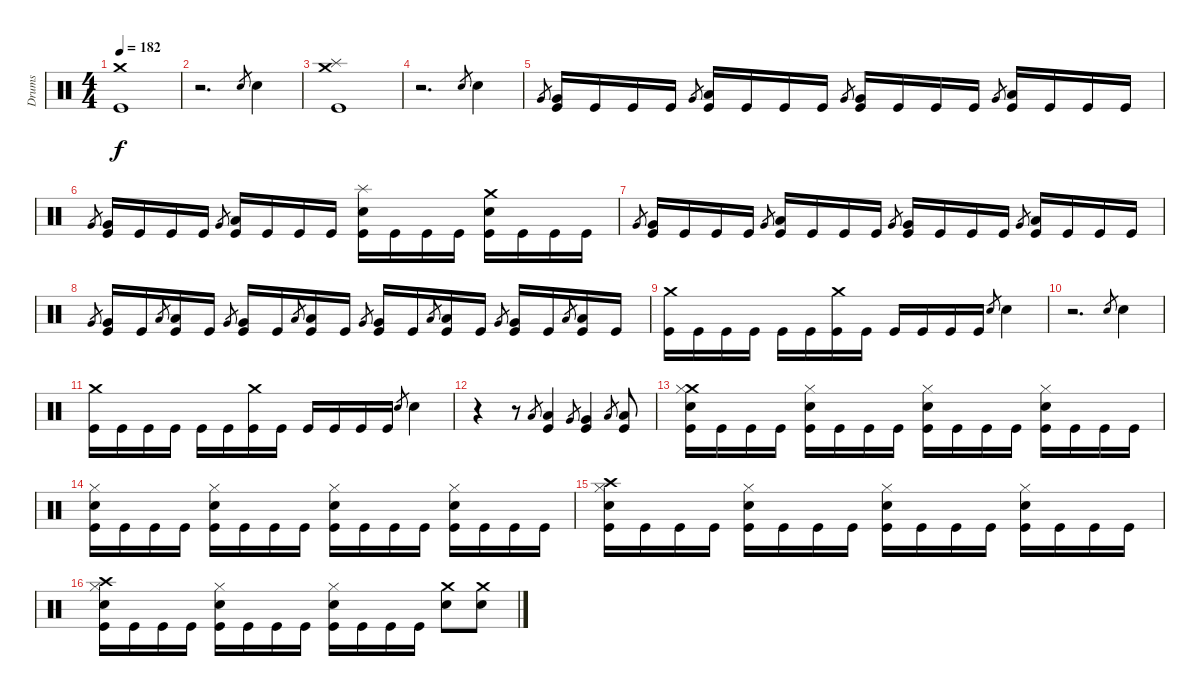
\track ("Drums" "Drums") {instrument percussion}
\staff {score}
\articulation defaults
\ts (4 4)
\tempo 182
\clef neutral
\ks c
("Crash medium (hit)" "Kick (hit)").1{dy f} |
r.2{d} "Snare (hit) 2".8{gr} "Snare (hit) 2".4 |
("Crash medium (hit)" "Splash (hit)" "Kick (hit)").1 |
r.2{d} "Snare (hit) 2".8{gr} "Snare (hit) 2".4 |
"Very Low Tom (hit)".8{gr} ("Very Low Tom (hit)" "Kick (hit)").16 "Kick (hit)".16 "Kick (hit)".16 "Kick (hit)".16 "Very Low Tom (hit)".8{gr} ("Low Floor Tom (hit)" "Kick (hit)").16 "Kick (hit)".16 "Kick (hit)".16 "Kick (hit)".16 "Very Low Tom (hit)".8{gr} ("Very Low Tom (hit)" "Kick (hit)").16 "Kick (hit)".16 "Kick (hit)".16 "Kick (hit)".16 "Very Low Tom (hit)".8{gr} ("Low Floor Tom (hit)" "Kick (hit)").16 "Kick (hit)".16 "Kick (hit)".16 "Kick (hit)".16 |
"Very Low Tom (hit)".8{gr} ("Very Low Tom (hit)" "Kick (hit)").16 "Kick (hit)".16 "Kick (hit)".16 "Kick (hit)".16 "Very Low Tom (hit)".8{gr} ("Low Floor Tom (hit)" "Kick (hit)").16 "Kick (hit)".16 "Kick (hit)".16 "Kick (hit)".16 ("Splash (hit)" "Snare (hit) 2" "Kick (hit)").16 "Kick (hit)".16 "Kick (hit)".16 "Kick (hit)".16 ("Crash medium (hit)" "Snare (hit) 2" "Kick (hit)").16 "Kick (hit)".16 "Kick (hit)".16 "Kick (hit)".16 |
"Very Low Tom (hit)".8{gr} ("Very Low Tom (hit)" "Kick (hit)").16 "Kick (hit)".16 "Kick (hit)".16 "Kick (hit)".16 "Very Low Tom (hit)".8{gr} ("Low Floor Tom (hit)" "Kick (hit)").16 "Kick (hit)".16 "Kick (hit)".16 "Kick (hit)".16 "Very Low Tom (hit)".8{gr} ("Very Low Tom (hit)" "Kick (hit)").16 "Kick (hit)".16 "Kick (hit)".16 "Kick (hit)".16 "Very Low Tom (hit)".8{gr} ("Low Floor Tom (hit)" "Kick (hit)").16 "Kick (hit)".16 "Kick (hit)".16 "Kick (hit)".16 |
"Very Low Tom (hit)".8{gr} ("Very Low Tom (hit)" "Kick (hit)").16 "Kick (hit)".16 "Low Floor Tom (hit)".8{gr} ("Low Floor Tom (hit)" "Kick (hit)").16 "Kick (hit)".16 "Very Low Tom (hit)".8{gr} ("Very Low Tom (hit)" "Kick (hit)").16 "Kick (hit)".16 "Low Floor Tom (hit)".8{gr} ("Low Floor Tom (hit)" "Kick (hit)").16 "Kick (hit)".16 "Very Low Tom (hit)".8{gr} ("Very Low Tom (hit)" "Kick (hit)").16 "Kick (hit)".16 "Low Floor Tom (hit)".8{gr} ("Low Floor Tom (hit)" "Kick (hit)").16 "Kick (hit)".16 "Very Low Tom (hit)".8{gr} ("Very Low Tom (hit)" "Kick (hit)").16 "Kick (hit)".16 "Low Floor Tom (hit)".8{gr} ("Low Floor Tom (hit)" "Kick (hit)").16 "Kick (hit)".16 |
("Crash medium (hit)" "Kick (hit)").16 "Kick (hit)".16 "Kick (hit)".16 "Kick (hit)".16 "Kick (hit)".16 "Kick (hit)".16 ("Crash medium (hit)" "Kick (hit)").16 "Kick (hit)".16 "Kick (hit)".16 "Kick (hit)".16 "Kick (hit)".16 "Kick (hit)".16 "Snare (hit) 2".8{gr} "Snare (hit) 2".4 |
r.2{d} "Snare (hit) 2".8{gr} "Snare (hit) 2".4 |
("Crash medium (hit)" "Kick (hit)").16 "Kick (hit)".16 "Kick (hit)".16 "Kick (hit)".16 "Kick (hit)".16 "Kick (hit)".16 ("Crash medium (hit)" "Kick (hit)").16 "Kick (hit)".16 "Kick (hit)".16 "Kick (hit)".16 "Kick (hit)".16 "Kick (hit)".16 "Snare (hit) 2".8{gr} "Snare (hit) 2".4 |
r.4 r.8 "Low Tom (hit)".8{gr} ("Low Tom (hit)" "Kick (hit)").4 "Very Low Tom (hit)".8{gr} ("Very Low Tom (hit)" "Kick (hit)").4 "Low Floor Tom (hit)".8{gr} ("Low Floor Tom (hit)" "Kick (hit)").8 |
("Crash medium (hit)" "Hi-Hat (closed)" "Snare (hit) 2" "Kick (hit)").16 "Kick (hit)".16 "Kick (hit)".16 "Kick (hit)".16 ("Hi-Hat (closed)" "Snare (hit) 2" "Kick (hit)").16 "Kick (hit)".16 "Kick (hit)".16 "Kick (hit)".16 ("Hi-Hat (closed)" "Snare (hit) 2" "Kick (hit)").16 "Kick (hit)".16 "Kick (hit)".16 "Kick (hit)".16 ("Hi-Hat (closed)" "Snare (hit) 2" "Kick (hit)").16 "Kick (hit)".16 "Kick (hit)".16 "Kick (hit)".16 |
("Hi-Hat (closed)" "Snare (hit) 2" "Kick (hit)").16 "Kick (hit)".16 "Kick (hit)".16 "Kick (hit)".16 ("Hi-Hat (closed)" "Snare (hit) 2" "Kick (hit)").16 "Kick (hit)".16 "Kick (hit)".16 "Kick (hit)".16 ("Hi-Hat (closed)" "Snare (hit) 2" "Kick (hit)").16 "Kick (hit)".16 "Kick (hit)".16 "Kick (hit)".16 ("Hi-Hat (closed)" "Snare (hit) 2" "Kick (hit)").16 "Kick (hit)".16 "Kick (hit)".16 "Kick (hit)".16 |
("Crash high (hit)" "Hi-Hat (closed)" "Snare (hit) 2" "Kick (hit)").16 "Kick (hit)".16 "Kick (hit)".16 "Kick (hit)".16 ("Hi-Hat (closed)" "Snare (hit) 2" "Kick (hit)").16 "Kick (hit)".16 "Kick (hit)".16 "Kick (hit)".16 ("Hi-Hat (closed)" "Snare (hit) 2" "Kick (hit)").16 "Kick (hit)".16 "Kick (hit)".16 "Kick (hit)".16 ("Hi-Hat (closed)" "Snare (hit) 2" "Kick (hit)").16 "Kick (hit)".16 "Kick (hit)".16 "Kick (hit)".16 |
("Crash high (hit)" "Hi-Hat (closed)" "Snare (hit) 2" "Kick (hit)").16 "Kick (hit)".16 "Kick (hit)".16 "Kick (hit)".16 ("Hi-Hat (closed)" "Snare (hit) 2" "Kick (hit)").16 "Kick (hit)".16 "Kick (hit)".16 "Kick (hit)".16 ("Hi-Hat (closed)" "Snare (hit) 2" "Kick (hit)").16 "Kick (hit)".16 "Kick (hit)".16 "Kick (hit)".16 ("Crash medium (hit)" "Snare (hit) 2").8 ("Crash medium (hit)" "Snare (hit) 2").8
